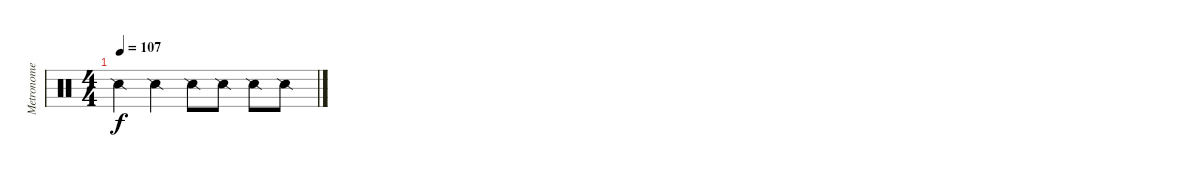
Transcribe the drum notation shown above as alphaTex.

\track ("Metronome" "Metronome") {instrument percussion}
\staff {score}
\articulation defaults
\ts (4 4)
\tempo 107
\clef neutral
\ks c "Snare (side stick) 2".4{dy f} "Snare (side stick) 2".4 "Snare (side stick) 2".8 "Snare (side stick) 2".8 "Snare (side stick) 2".8 "Snare (side stick) 2".8
